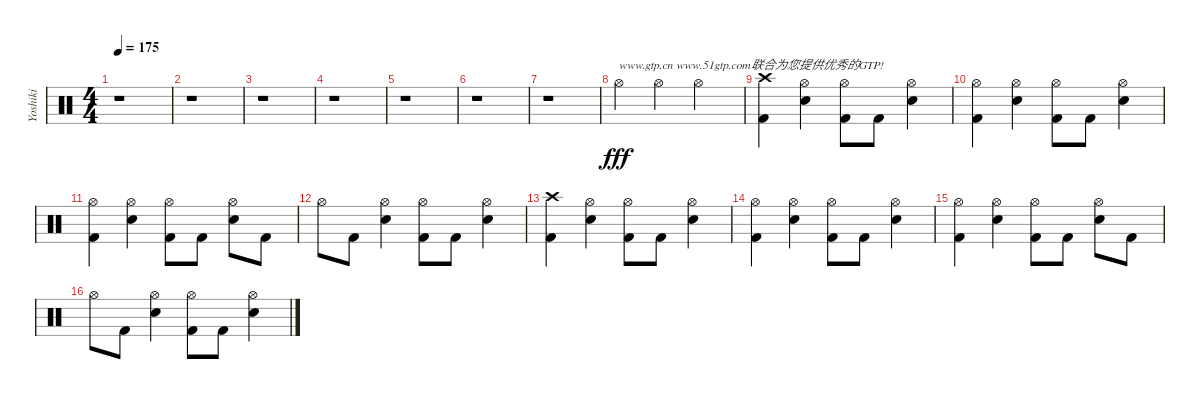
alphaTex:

\track ("Yoshiki" "Yoshiki") {instrument percussion}
\staff {score}
\articulation defaults
\ts (4 4)
\tempo 175
\clef neutral
\ks c
r.1{dy fff} |
r.1 |
r.1 |
r.1 |
r.1 |
r.1 |
r.1 |
"Hi-Hat (open)".4{txt "www.gtp.cn www.51gtp.com联合为您提供优秀的GTP!"} "Hi-Hat (open)".4 "Hi-Hat (open)".2 |
("Crash high (hit)" "Kick (hit) 2").4 ("Hi-Hat (open)" "Snare (hit) 2").4 ("Hi-Hat (open)" "Kick (hit) 2").8 "Kick (hit) 2".8 ("Hi-Hat (open)" "Snare (hit) 2").4 |
("Hi-Hat (open)" "Kick (hit) 2").4 ("Hi-Hat (open)" "Snare (hit) 2").4 ("Hi-Hat (open)" "Kick (hit) 2").8 "Kick (hit) 2".8 ("Hi-Hat (open)" "Snare (hit) 2").4 |
("Hi-Hat (open)" "Kick (hit) 2").4 ("Hi-Hat (open)" "Snare (hit) 2").4 ("Hi-Hat (open)" "Kick (hit) 2").8 "Kick (hit) 2".8 ("Hi-Hat (open)" "Snare (hit) 2").8 "Kick (hit) 2".8 |
"Hi-Hat (open)".8 "Kick (hit) 2".8 ("Hi-Hat (open)" "Snare (hit) 2").4 ("Hi-Hat (open)" "Kick (hit) 2").8 "Kick (hit) 2".8 ("Hi-Hat (open)" "Snare (hit) 2").4 |
("Crash high (hit)" "Kick (hit) 2").4 ("Hi-Hat (open)" "Snare (hit) 2").4 ("Hi-Hat (open)" "Kick (hit) 2").8 "Kick (hit) 2".8 ("Hi-Hat (open)" "Snare (hit) 2").4 |
("Hi-Hat (open)" "Kick (hit) 2").4 ("Hi-Hat (open)" "Snare (hit) 2").4 ("Hi-Hat (open)" "Kick (hit) 2").8 "Kick (hit) 2".8 ("Hi-Hat (open)" "Snare (hit) 2").4 |
("Hi-Hat (open)" "Kick (hit) 2").4 ("Hi-Hat (open)" "Snare (hit) 2").4 ("Hi-Hat (open)" "Kick (hit) 2").8 "Kick (hit) 2".8 ("Hi-Hat (open)" "Snare (hit) 2").8 "Kick (hit) 2".8 |
"Hi-Hat (open)".8 "Kick (hit) 2".8 ("Hi-Hat (open)" "Snare (hit) 2").4 ("Hi-Hat (open)" "Kick (hit) 2").8 "Kick (hit) 2".8 ("Hi-Hat (open)" "Snare (hit) 2").4
